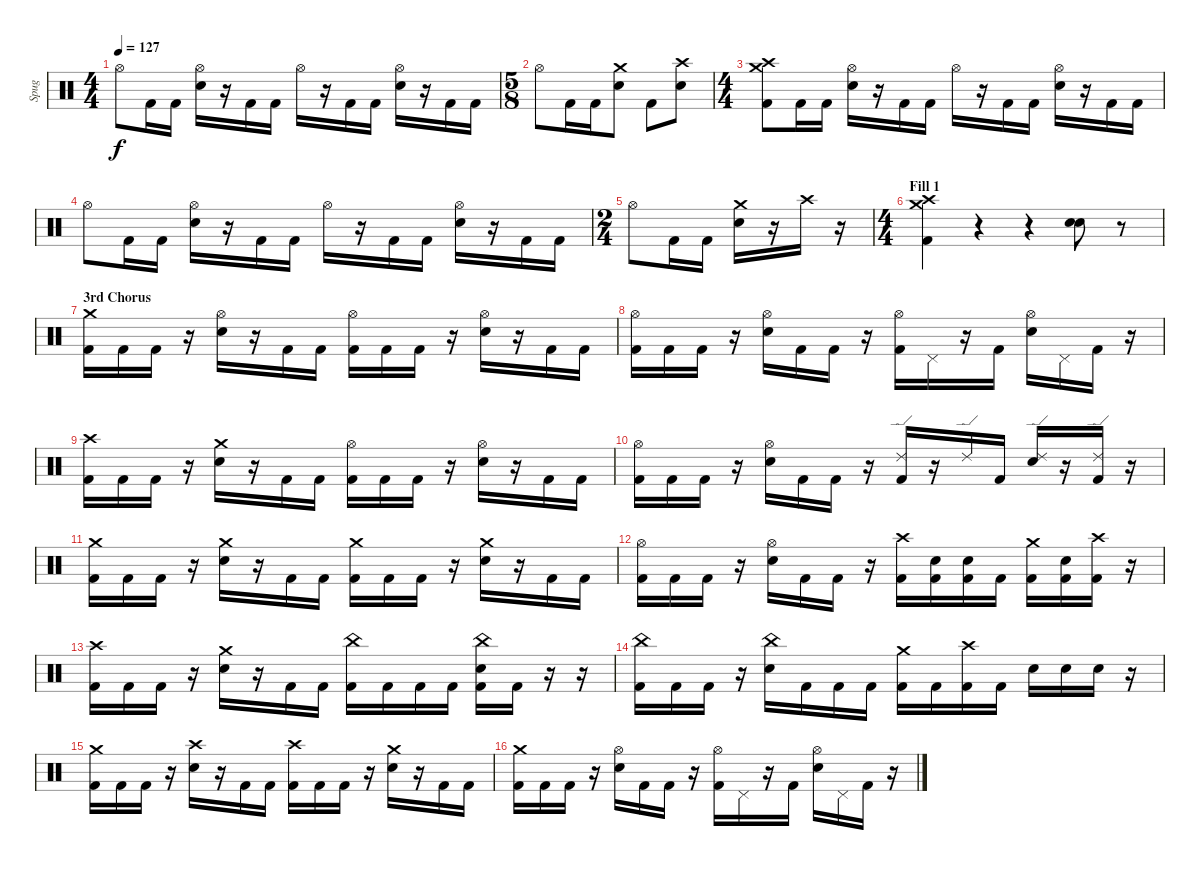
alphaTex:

\track ("Spug" "Spug") {instrument percussion}
\staff {score}
\articulation defaults
\ts (4 4)
\tempo 127
\clef neutral
\ks c "Hi-Hat (open)".8{dy f} "Kick (hit) 2".16 "Kick (hit) 2".16
("Hi-Hat (open)" "Electric Snare (hit)").16 r.16 "Kick (hit) 2".16 "Kick (hit) 2".16 "Hi-Hat (open)".16 r.16 "Kick (hit) 2".16 "Kick (hit) 2".16 ("Hi-Hat (open)" "Electric Snare (hit)").16 r.16 "Kick (hit) 2".16 "Kick (hit) 2".16 |
\ts (5 8)
"Hi-Hat (open)".8 "Kick (hit) 2".16 "Kick (hit) 2".16 ("Crash medium (hit)" "Electric Snare (hit)").8 "Kick (hit) 2".8 ("Crash high (hit)" "Electric Snare (hit)").8 |
\ts (4 4)
("Crash high (hit)" "Crash medium (hit)" "Kick (hit) 2").8 "Kick (hit) 2".16 "Kick (hit) 2".16 ("Hi-Hat (open)" "Electric Snare (hit)").16 r.16 "Kick (hit) 2".16 "Kick (hit) 2".16 "Hi-Hat (open)".16 r.16 "Kick (hit) 2".16 "Kick (hit) 2".16 ("Hi-Hat (open)" "Electric Snare (hit)").16 r.16 "Kick (hit) 2".16 "Kick (hit) 2".16 |
"Hi-Hat (open)".8 "Kick (hit) 2".16 "Kick (hit) 2".16 ("Hi-Hat (open)" "Electric Snare (hit)").16 r.16 "Kick (hit) 2".16 "Kick (hit) 2".16 "Hi-Hat (open)".16 r.16 "Kick (hit) 2".16 "Kick (hit) 2".16 ("Hi-Hat (open)" "Electric Snare (hit)").16 r.16 "Kick (hit) 2".16 "Kick (hit) 2".16 |
\ts (2 4)
"Hi-Hat (open)".8 "Kick (hit) 2".16 "Kick (hit) 2".16 ("Crash medium (hit)" "Electric Snare (hit)").16 r.16 "Crash high (hit)".16 r.16 |
\ts (4 4)
\section ("" "Fill 1 ")
("Crash high (hit)" "Crash medium (hit)" "Kick (hit) 2").4 r.4 r.4 ("Electric Snare (hit)" "Electric Snare (hit)").8{bd 480} r.8 |
\section ("" "3rd Chorus")
("Crash medium (hit)" "Kick (hit) 2").16 "Kick (hit) 2".16 "Kick (hit) 2".16 r.16 ("Hi-Hat (open)" "Electric Snare (hit)").16 r.16 "Kick (hit) 2".16 "Kick (hit) 2".16 ("Hi-Hat (open)" "Kick (hit) 2").16 "Kick (hit) 2".16 "Kick (hit) 2".16 r.16 ("Hi-Hat (open)" "Electric Snare (hit)").16 r.16 "Kick (hit) 2".16 "Kick (hit) 2".16 |
("Hi-Hat (open)" "Kick (hit) 2").16 "Kick (hit) 2".16 "Kick (hit) 2".16 r.16 ("Hi-Hat (open)" "Electric Snare (hit)").16 "Kick (hit) 2".16 "Kick (hit) 2".16 r.16 ("Hi-Hat (open)" "Kick (hit) 2").16 "Pedal Hi-Hat (hit)".16 r.16 "Kick (hit) 2".16 ("Hi-Hat (open)" "Electric Snare (hit)").16 "Pedal Hi-Hat (hit)".16 "Kick (hit) 2".16 r.16 |
("Crash high (hit)" "Kick (hit) 2").16 "Kick (hit) 2".16 "Kick (hit) 2".16 r.16 ("Crash medium (hit)" "Electric Snare (hit)").16 r.16 "Kick (hit) 2".16 "Kick (hit) 2".16 ("Hi-Hat (open)" "Kick (hit) 2").16 "Kick (hit) 2".16 "Kick (hit) 2".16 r.16 ("Hi-Hat (open)" "Electric Snare (hit)").16 r.16 "Kick (hit) 2".16 "Kick (hit) 2".16 |
("Hi-Hat (open)" "Kick (hit) 2").16 "Kick (hit) 2".16 "Kick (hit) 2".16 r.16 ("Hi-Hat (open)" "Electric Snare (hit)").16 "Kick (hit) 2".16 "Kick (hit) 2".16 r.16 ("Ride (edge) 2" "Kick (hit) 2").16 r.16 "Ride (edge) 2".16 "Kick (hit) 2".16 ("Ride (edge) 2" "Electric Snare (hit)").16 r.16 ("Ride (edge) 2" "Kick (hit) 2").16 r.16 |
("Crash medium (hit)" "Kick (hit) 2").16 "Kick (hit) 2".16 "Kick (hit) 2".16 r.16 ("Crash medium (hit)" "Electric Snare (hit)").16 r.16 "Kick (hit) 2".16 "Kick (hit) 2".16 ("Crash medium (hit)" "Kick (hit) 2").16 "Kick (hit) 2".16 "Kick (hit) 2".16 r.16 ("Crash medium (hit)" "Electric Snare (hit)").16 r.16 "Kick (hit) 2".16 "Kick (hit) 2".16 |
("Hi-Hat (open)" "Kick (hit) 2").16 "Kick (hit) 2".16 "Kick (hit) 2".16 r.16 ("Hi-Hat (open)" "Electric Snare (hit)").16 "Kick (hit) 2".16 "Kick (hit) 2".16 r.16 ("Crash high (hit)" "Kick (hit) 2").16 ("Electric Snare (hit)" "Kick (hit) 2").16 ("Electric Snare (hit)" "Kick (hit) 2").16 "Kick (hit) 2".16 ("Crash medium (hit)" "Kick (hit) 2").16 ("Electric Snare (hit)" "Kick (hit) 2").16 ("Crash high (hit)" "Kick (hit) 2").16 r.16 |
("Crash high (hit)" "Kick (hit) 2").16 "Kick (hit) 2".16 "Kick (hit) 2".16 r.16 ("Crash medium (hit)" "Electric Snare (hit)").16 r.16 "Kick (hit) 2".16 "Kick (hit) 2".16 ("China (hit)" "Kick (hit) 2").16 "Kick (hit) 2".16 "Kick (hit) 2".16 "Kick (hit) 2".16 ("China (hit)" "Electric Snare (hit)" "Kick (hit) 2").16 "Kick (hit) 2".16 r.16 r.16 |
("China (hit)" "Kick (hit) 2").16 "Kick (hit) 2".16 "Kick (hit) 2".16 r.16 ("China (hit)" "Electric Snare (hit)").16 "Kick (hit) 2".16 "Kick (hit) 2".16 "Kick (hit) 2".16 ("Crash medium (hit)" "Kick (hit) 2").16 "Kick (hit) 2".16 ("Crash high (hit)" "Kick (hit) 2").16 "Kick (hit) 2".16 "Electric Snare (hit)".16 "Electric Snare (hit)".16 "Electric Snare (hit)".16 r.16 |
("Crash medium (hit)" "Kick (hit) 2").16 "Kick (hit) 2".16 "Kick (hit) 2".16 r.16 ("Crash high (hit)" "Electric Snare (hit)").16 r.16 "Kick (hit) 2".16 "Kick (hit) 2".16 ("Crash high (hit)" "Kick (hit) 2").16 "Kick (hit) 2".16 "Kick (hit) 2".16 r.16 ("Crash medium (hit)" "Electric Snare (hit)").16 r.16 "Kick (hit) 2".16 "Kick (hit) 2".16 |
("Crash medium (hit)" "Kick (hit) 2").16 "Kick (hit) 2".16 "Kick (hit) 2".16 r.16 ("Hi-Hat (open)" "Electric Snare (hit)").16 "Kick (hit) 2".16 "Kick (hit) 2".16 r.16 ("Hi-Hat (open)" "Kick (hit) 2").16 "Pedal Hi-Hat (hit)".16 r.16 "Kick (hit) 2".16 ("Hi-Hat (open)" "Electric Snare (hit)").16 "Pedal Hi-Hat (hit)".16 "Kick (hit) 2".16 r.16
